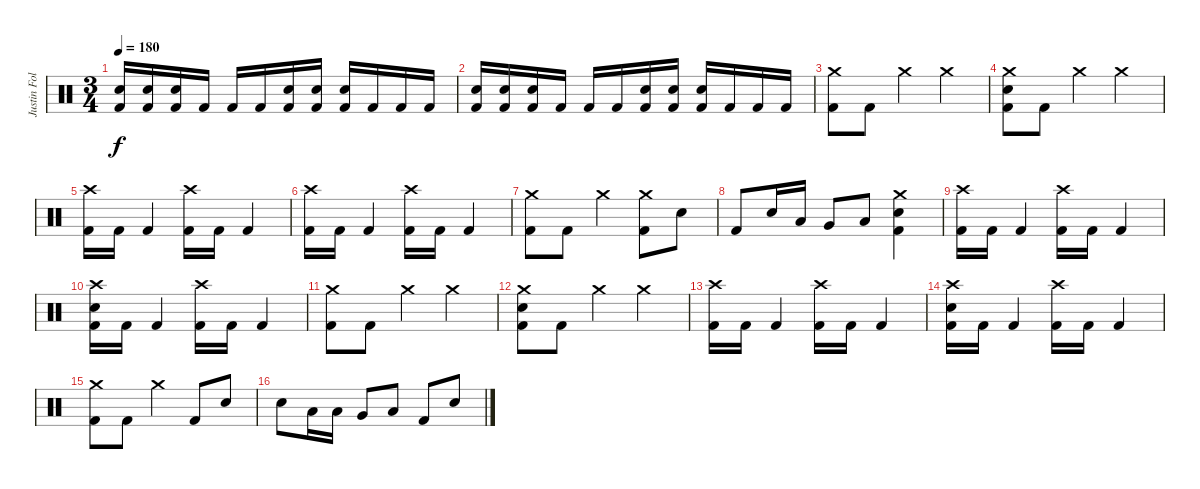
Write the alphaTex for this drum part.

\track ("Justin Foley" "Justin Fol") {instrument percussion}
\staff {score}
\articulation defaults
\ts (3 4)
\tempo 180
\clef neutral
\ks c
("Electric Snare (hit)" "Kick (hit) 2").16{dy f} ("Electric Snare (hit)" "Kick (hit) 2").16 ("Electric Snare (hit)" "Kick (hit) 2").16 "Kick (hit) 2".16 "Kick (hit) 2".16 "Kick (hit) 2".16 ("Electric Snare (hit)" "Kick (hit) 2").16 ("Electric Snare (hit)" "Kick (hit) 2").16 ("Electric Snare (hit)" "Kick (hit) 2").16 "Kick (hit) 2".16 "Kick (hit) 2".16 "Kick (hit) 2".16 |
("Electric Snare (hit)" "Kick (hit) 2").16 ("Electric Snare (hit)" "Kick (hit) 2").16 ("Electric Snare (hit)" "Kick (hit) 2").16 "Kick (hit) 2".16 "Kick (hit) 2".16 "Kick (hit) 2".16 ("Electric Snare (hit)" "Kick (hit) 2").16 ("Electric Snare (hit)" "Kick (hit) 2").16 ("Electric Snare (hit)" "Kick (hit) 2").16 "Kick (hit) 2".16 "Kick (hit) 2".16 "Kick (hit) 2".16 |
("Crash medium (hit)" "Kick (hit) 2").8 "Kick (hit) 2".8 "Crash medium (hit)".4 "Crash medium (hit)".4 |
("Crash medium (hit)" "Electric Snare (hit)" "Kick (hit) 2").8 "Kick (hit) 2".8 "Crash medium (hit)".4 "Crash medium (hit)".4 |
("Crash high (hit)" "Kick (hit) 2").16 "Kick (hit) 2".16 "Kick (hit) 2".4 ("Crash high (hit)" "Kick (hit) 2").16 "Kick (hit) 2".16 "Kick (hit) 2".4 |
("Crash high (hit)" "Kick (hit) 2").16 "Kick (hit) 2".16 "Kick (hit) 2".4 ("Crash high (hit)" "Kick (hit) 2").16 "Kick (hit) 2".16 "Kick (hit) 2".4 |
("Crash medium (hit)" "Kick (hit) 2").8 "Kick (hit) 2".8 "Crash medium (hit)".4 ("Crash medium (hit)" "Kick (hit) 2").8 "Electric Snare (hit)".8 |
"Kick (hit) 2".8 "Electric Snare (hit)".16 "Low Tom (hit)".16 "Very Low Tom (hit)".8 "Low Floor Tom (hit)".8 ("Crash medium (hit)" "Electric Snare (hit)" "Kick (hit) 2").4 |
("Crash high (hit)" "Kick (hit) 2").16 "Kick (hit) 2".16 "Kick (hit) 2".4 ("Crash high (hit)" "Kick (hit) 2").16 "Kick (hit) 2".16 "Kick (hit) 2".4 |
("Crash high (hit)" "Electric Snare (hit)" "Kick (hit) 2").16 "Kick (hit) 2".16 "Kick (hit) 2".4 ("Crash high (hit)" "Kick (hit) 2").16 "Kick (hit) 2".16 "Kick (hit) 2".4 |
("Crash medium (hit)" "Kick (hit) 2").8 "Kick (hit) 2".8 "Crash medium (hit)".4 "Crash medium (hit)".4 |
("Crash medium (hit)" "Electric Snare (hit)" "Kick (hit) 2").8 "Kick (hit) 2".8 "Crash medium (hit)".4 "Crash medium (hit)".4 |
("Crash high (hit)" "Kick (hit) 2").16 "Kick (hit) 2".16 "Kick (hit) 2".4 ("Crash high (hit)" "Kick (hit) 2").16 "Kick (hit) 2".16 "Kick (hit) 2".4 |
("Crash high (hit)" "Electric Snare (hit)" "Kick (hit) 2").16 "Kick (hit) 2".16 "Kick (hit) 2".4 ("Crash high (hit)" "Kick (hit) 2").16 "Kick (hit) 2".16 "Kick (hit) 2".4 |
("Crash medium (hit)" "Kick (hit) 2").8 "Kick (hit) 2".8 "Crash medium (hit)".4 "Kick (hit) 2".8 "Electric Snare (hit)".8 |
"Electric Snare (hit)".8 "Low Tom (hit)".16 "Low Tom (hit)".16 "Very Low Tom (hit)".8 "Low Floor Tom (hit)".8 "Kick (hit) 2".8 "Electric Snare (hit)".8
